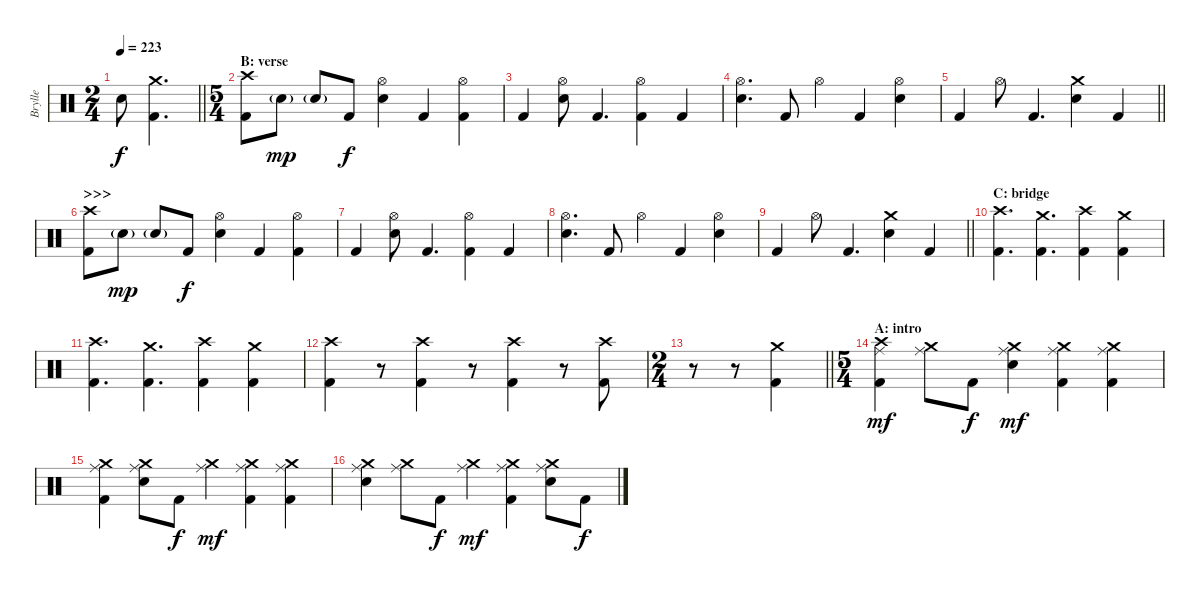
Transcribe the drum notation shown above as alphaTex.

\track ("Brylle" "Brylle") {instrument percussion}
\staff {score}
\articulation defaults
\ts (2 4)
\tempo 223
\clef neutral
\barLineRight lightlight
\ks c "Electric Snare (hit)".8{dy f}
("Crash medium (hit)" "Kick (hit) 2").4{d} |
\ts (5 4)
\section ("" "B: verse")
("Crash high (hit)" "Kick (hit) 2").8 "Electric Snare (hit)"{g}.8{dy mp} "Electric Snare (hit)"{g}.8 "Kick (hit) 2".8{dy f} ("Hi-Hat (open)" "Electric Snare (hit)").4 "Kick (hit) 2".4 ("Hi-Hat (open)" "Kick (hit) 2").4 |
"Kick (hit) 2".4 ("Hi-Hat (open)" "Electric Snare (hit)").8 "Kick (hit) 2".4{d} ("Hi-Hat (open)" "Kick (hit) 2").4 "Kick (hit) 2".4 |
("Hi-Hat (open)" "Electric Snare (hit)").4{d} "Kick (hit) 2".8 "Hi-Hat (open)".4 "Kick (hit) 2".4 ("Hi-Hat (open)" "Electric Snare (hit)").4 |
\barLineRight lightlight "Kick (hit) 2".4 "Hi-Hat (open)".8 "Kick (hit) 2".4{d}
("Crash medium (hit)" "Electric Snare (hit)").4 "Kick (hit) 2".4 |
\section ("" ">>>")
("Crash high (hit)" "Kick (hit) 2").8 "Electric Snare (hit)"{g}.8{dy mp} "Electric Snare (hit)"{g}.8 "Kick (hit) 2".8{dy f} ("Hi-Hat (open)" "Electric Snare (hit)").4 "Kick (hit) 2".4 ("Hi-Hat (open)" "Kick (hit) 2").4 |
"Kick (hit) 2".4 ("Hi-Hat (open)" "Electric Snare (hit)").8 "Kick (hit) 2".4{d} ("Hi-Hat (open)" "Kick (hit) 2").4 "Kick (hit) 2".4 |
("Hi-Hat (open)" "Electric Snare (hit)").4{d} "Kick (hit) 2".8 "Hi-Hat (open)".4 "Kick (hit) 2".4 ("Hi-Hat (open)" "Electric Snare (hit)").4 |
\barLineRight lightlight "Kick (hit) 2".4 "Hi-Hat (open)".8 "Kick (hit) 2".4{d}
("Crash medium (hit)" "Electric Snare (hit)").4 "Kick (hit) 2".4 |
\section ("" "C: bridge")
("Crash high (hit)" "Kick (hit) 2").4{d} ("Crash medium (hit)" "Kick (hit) 2").4{d} ("Crash high (hit)" "Kick (hit) 2").4 ("Crash medium (hit)" "Kick (hit) 2").4 |
("Crash high (hit)" "Kick (hit) 2").4{d} ("Crash medium (hit)" "Kick (hit) 2").4{d} ("Crash high (hit)" "Kick (hit) 2").4 ("Crash medium (hit)" "Kick (hit) 2").4 |
("Crash high (hit)" "Kick (hit) 2").4 r.8{volume 0} ("Crash high (hit)" "Kick (hit) 2").4{volume 16} r.8{volume 0} ("Crash high (hit)" "Kick (hit) 2").4{volume 16} r.8{volume 0} ("Crash high (hit)" "Kick (hit) 2").8{volume 16} |
\ts (2 4)
\barLineRight lightlight
r.8 r.8{volume 0} ("Crash medium (hit)" "Kick (hit) 2").4{volume 16} |
\ts (5 4)
\section ("" "A: intro")
("Crash high (hit)" "Ride (middle)" "Kick (hit) 2").4{dy mf} ("Crash medium (hit)" "Ride (middle)").8 "Kick (hit) 2".8{dy f} ("Crash medium (hit)" "Ride (middle)" "Electric Snare (hit)").4{dy mf} ("Crash medium (hit)" "Ride (middle)" "Kick (hit) 2").4 ("Crash medium (hit)" "Ride (middle)" "Kick (hit) 2").4 |
("Crash medium (hit)" "Ride (middle)" "Kick (hit) 2").4 ("Crash medium (hit)" "Ride (middle)" "Electric Snare (hit)").8 "Kick (hit) 2".8{dy f} ("Crash medium (hit)" "Ride (middle)").4{dy mf} ("Crash medium (hit)" "Ride (middle)" "Kick (hit) 2").4 ("Crash medium (hit)" "Ride (middle)" "Kick (hit) 2").4 |
("Crash medium (hit)" "Ride (middle)" "Electric Snare (hit)").4 ("Crash medium (hit)" "Ride (middle)").8 "Kick (hit) 2".8{dy f} ("Crash medium (hit)" "Ride (middle)").4{dy mf} ("Crash medium (hit)" "Ride (middle)" "Kick (hit) 2").4 ("Crash medium (hit)" "Ride (middle)" "Electric Snare (hit)").8 "Kick (hit) 2".8{dy f}
